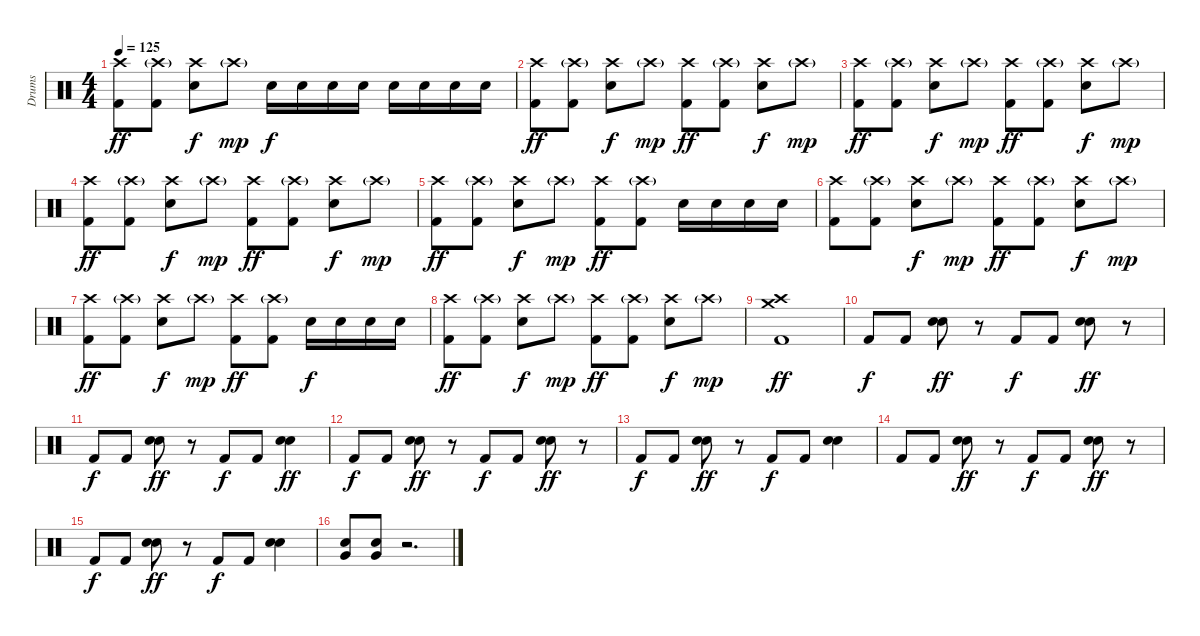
\track ("Drums" "Drums") {instrument percussion}
\staff {score}
\articulation defaults
\ts (4 4)
\tempo 125
\clef neutral
\ks c
("Crash high (hit)" "Kick (hit) 2").8{dy ff} ("Crash high (hit)"{g} "Kick (hit) 2").8 ("Crash high (hit)" "Electric Snare (hit)").8{dy f} "Crash high (hit)"{g}.8{dy mp} "Electric Snare (hit)".16{dy f} "Electric Snare (hit)".16 "Electric Snare (hit)".16 "Electric Snare (hit)".16 "Electric Snare (hit)".16 "Electric Snare (hit)".16 "Electric Snare (hit)".16 "Electric Snare (hit)".16 |
("Crash high (hit)" "Kick (hit) 2").8{dy ff} ("Crash high (hit)"{g} "Kick (hit) 2").8 ("Crash high (hit)" "Electric Snare (hit)").8{dy f} "Crash high (hit)"{g}.8{dy mp} ("Crash high (hit)" "Kick (hit) 2").8{dy ff} ("Crash high (hit)"{g} "Kick (hit) 2").8 ("Crash high (hit)" "Electric Snare (hit)").8{dy f} "Crash high (hit)"{g}.8{dy mp} |
("Crash high (hit)" "Kick (hit) 2").8{dy ff} ("Crash high (hit)"{g} "Kick (hit) 2").8 ("Crash high (hit)" "Electric Snare (hit)").8{dy f} "Crash high (hit)"{g}.8{dy mp} ("Crash high (hit)" "Kick (hit) 2").8{dy ff} ("Crash high (hit)"{g} "Kick (hit) 2").8 ("Crash high (hit)" "Electric Snare (hit)").8{dy f} "Crash high (hit)"{g}.8{dy mp} |
("Crash high (hit)" "Kick (hit) 2").8{dy ff} ("Crash high (hit)"{g} "Kick (hit) 2").8 ("Crash high (hit)" "Electric Snare (hit)").8{dy f} "Crash high (hit)"{g}.8{dy mp} ("Crash high (hit)" "Kick (hit) 2").8{dy ff} ("Crash high (hit)"{g} "Kick (hit) 2").8 ("Crash high (hit)" "Electric Snare (hit)").8{dy f} "Crash high (hit)"{g}.8{dy mp} |
("Crash high (hit)" "Kick (hit) 2").8{dy ff} ("Crash high (hit)"{g} "Kick (hit) 2").8 ("Crash high (hit)" "Electric Snare (hit)").8{dy f} "Crash high (hit)"{g}.8{dy mp} ("Crash high (hit)" "Kick (hit) 2").8{dy ff} ("Crash high (hit)"{g} "Kick (hit) 2").8 "Electric Snare (hit)".16 "Electric Snare (hit)".16 "Electric Snare (hit)".16 "Electric Snare (hit)".16 |
("Crash high (hit)" "Kick (hit) 2").8 ("Crash high (hit)"{g} "Kick (hit) 2").8 ("Crash high (hit)" "Electric Snare (hit)").8{dy f} "Crash high (hit)"{g}.8{dy mp} ("Crash high (hit)" "Kick (hit) 2").8{dy ff} ("Crash high (hit)"{g} "Kick (hit) 2").8 ("Crash high (hit)" "Electric Snare (hit)").8{dy f} "Crash high (hit)"{g}.8{dy mp} |
("Crash high (hit)" "Kick (hit) 2").8{dy ff} ("Crash high (hit)"{g} "Kick (hit) 2").8 ("Crash high (hit)" "Electric Snare (hit)").8{dy f} "Crash high (hit)"{g}.8{dy mp} ("Crash high (hit)" "Kick (hit) 2").8{dy ff} ("Crash high (hit)"{g} "Kick (hit) 2").8 "Electric Snare (hit)".16{dy f} "Electric Snare (hit)".16 "Electric Snare (hit)".16 "Electric Snare (hit)".16 |
("Crash high (hit)" "Kick (hit) 2").8{dy ff} ("Crash high (hit)"{g} "Kick (hit) 2").8 ("Crash high (hit)" "Electric Snare (hit)").8{dy f} "Crash high (hit)"{g}.8{dy mp} ("Crash high (hit)" "Kick (hit) 2").8{dy ff} ("Crash high (hit)"{g} "Kick (hit) 2").8 ("Crash high (hit)" "Electric Snare (hit)").8{dy f} "Crash high (hit)"{g}.8{dy mp} |
("Crash high (hit)" "Crash medium (hit)" "Kick (hit) 2").1{dy ff} |
"Kick (hit) 2".8{dy f} "Kick (hit) 2".8 ("Electric Snare (hit)" "Electric Snare (hit)").8{bd 60 dy ff} r.8 "Kick (hit) 2".8{dy f} "Kick (hit) 2".8 ("Electric Snare (hit)" "Electric Snare (hit)").8{bd 60 dy ff} r.8 |
"Kick (hit) 2".8{dy f} "Kick (hit) 2".8 ("Electric Snare (hit)" "Electric Snare (hit)").8{bd 60 dy ff} r.8 "Kick (hit) 2".8{dy f} "Kick (hit) 2".8 ("Electric Snare (hit)" "Electric Snare (hit)").4{bd 60 dy ff} |
"Kick (hit) 2".8{dy f} "Kick (hit) 2".8 ("Electric Snare (hit)" "Electric Snare (hit)").8{bd 60 dy ff} r.8 "Kick (hit) 2".8{dy f} "Kick (hit) 2".8 ("Electric Snare (hit)" "Electric Snare (hit)").8{bd 60 dy ff} r.8 |
"Kick (hit) 2".8{dy f} "Kick (hit) 2".8 ("Electric Snare (hit)" "Electric Snare (hit)").8{bd 60 dy ff} r.8 "Kick (hit) 2".8{dy f} "Kick (hit) 2".8 ("Electric Snare (hit)" "Electric Snare (hit)").4{bd 60} |
"Kick (hit) 2".8 "Kick (hit) 2".8 ("Electric Snare (hit)" "Electric Snare (hit)").8{bd 60 dy ff} r.8 "Kick (hit) 2".8{dy f} "Kick (hit) 2".8 ("Electric Snare (hit)" "Electric Snare (hit)").8{bd 60 dy ff} r.8 |
"Kick (hit) 2".8{dy f} "Kick (hit) 2".8 ("Electric Snare (hit)" "Electric Snare (hit)").8{bd 60 dy ff} r.8 "Kick (hit) 2".8{dy f} "Kick (hit) 2".8 ("Electric Snare (hit)" "Electric Snare (hit)").4{bd 60} |
("Very Low Tom (hit)" "Electric Snare (hit)").8{bd 60} ("Very Low Tom (hit)" "Electric Snare (hit)").8{bd 60} r.2{d}
